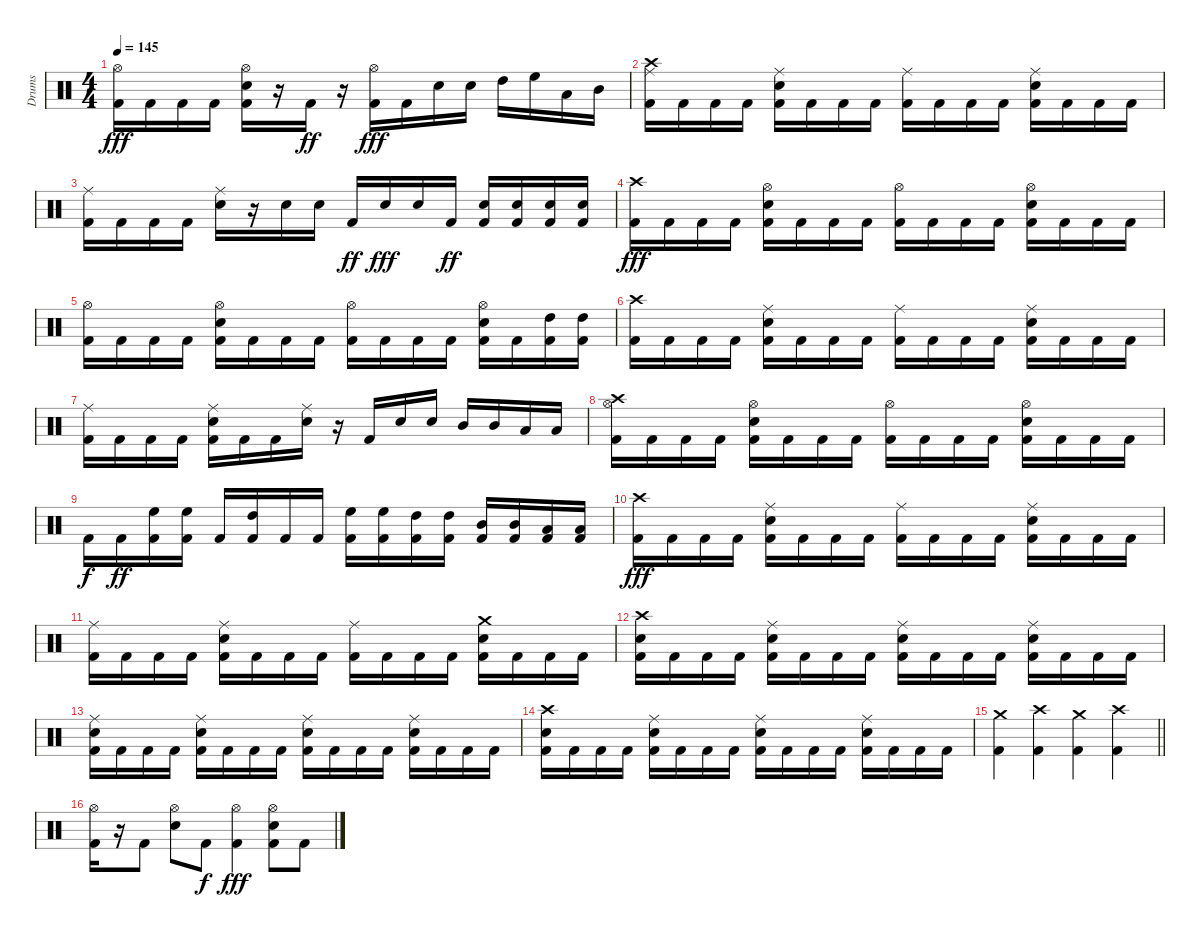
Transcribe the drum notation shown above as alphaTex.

\track ("Drums" "Drums") {instrument percussion}
\staff {score}
\articulation defaults
\ts (4 4)
\tempo 145
\clef neutral
\ks c
("Hi-Hat (open)" "Kick (hit) 2").16{dy fff} "Kick (hit) 2".16 "Kick (hit) 2".16 "Kick (hit) 2".16 ("Hi-Hat (open)" "Snare (hit) 2" "Kick (hit) 2").16 r.16 "Kick (hit) 2".16{dy ff} r.16 ("Hi-Hat (open)" "Kick (hit) 2").16{dy fff} "Kick (hit) 2".16 "Snare (hit) 2".16 "Snare (hit) 2".16 "High Tom (hit)".16 "High Floor Tom (hit)".16 "Low Tom (hit)".16 "Mid Tom (hit)".16 |
("Crash high (hit)" "Ride (middle)" "Kick (hit) 2").16 "Kick (hit) 2".16 "Kick (hit) 2".16 "Kick (hit) 2".16 ("Ride (middle)" "Snare (hit) 2" "Kick (hit) 2").16 "Kick (hit) 2".16 "Kick (hit) 2".16 "Kick (hit) 2".16 ("Ride (middle)" "Kick (hit) 2").16 "Kick (hit) 2".16 "Kick (hit) 2".16 "Kick (hit) 2".16 ("Ride (middle)" "Snare (hit) 2" "Kick (hit) 2").16 "Kick (hit) 2".16 "Kick (hit) 2".16 "Kick (hit) 2".16 |
("Ride (middle)" "Kick (hit) 2").16 "Kick (hit) 2".16 "Kick (hit) 2".16 "Kick (hit) 2".16 ("Ride (middle)" "Snare (hit) 2").16 r.16 "Snare (hit) 2".16 "Snare (hit) 2".16 "Kick (hit) 2".16{dy ff} "Snare (hit) 2".16{dy fff} "Snare (hit) 2".16 "Kick (hit) 2".16{dy ff} ("Snare (hit) 2" "Kick (hit) 2").16 ("Snare (hit) 2" "Kick (hit) 2").16 ("Snare (hit) 2" "Kick (hit) 2").16 ("Snare (hit) 2" "Kick (hit) 2").16 |
("Crash high (hit)" "Kick (hit) 2").16{dy fff} "Kick (hit) 2".16 "Kick (hit) 2".16 "Kick (hit) 2".16 ("Hi-Hat (open)" "Snare (hit) 2" "Kick (hit) 2").16 "Kick (hit) 2".16 "Kick (hit) 2".16 "Kick (hit) 2".16 ("Hi-Hat (open)" "Kick (hit) 2").16 "Kick (hit) 2".16 "Kick (hit) 2".16 "Kick (hit) 2".16 ("Hi-Hat (open)" "Snare (hit) 2" "Kick (hit) 2").16 "Kick (hit) 2".16 "Kick (hit) 2".16 "Kick (hit) 2".16 |
("Hi-Hat (open)" "Kick (hit) 2").16 "Kick (hit) 2".16 "Kick (hit) 2".16 "Kick (hit) 2".16 ("Hi-Hat (open)" "Snare (hit) 2" "Kick (hit) 2").16 "Kick (hit) 2".16 "Kick (hit) 2".16 "Kick (hit) 2".16 ("Hi-Hat (open)" "Kick (hit) 2").16 "Kick (hit) 2".16 "Kick (hit) 2".16 "Kick (hit) 2".16 ("Hi-Hat (open)" "Snare (hit) 2" "Kick (hit) 2").16 "Kick (hit) 2".16 ("High Tom (hit)" "Kick (hit) 2").16 ("High Tom (hit)" "Kick (hit) 2").16 |
("Crash high (hit)" "Kick (hit) 2").16 "Kick (hit) 2".16 "Kick (hit) 2".16 "Kick (hit) 2".16 ("Ride (middle)" "Snare (hit) 2" "Kick (hit) 2").16 "Kick (hit) 2".16 "Kick (hit) 2".16 "Kick (hit) 2".16 ("Ride (middle)" "Kick (hit) 2").16 "Kick (hit) 2".16 "Kick (hit) 2".16 "Kick (hit) 2".16 ("Ride (middle)" "Snare (hit) 2" "Kick (hit) 2").16 "Kick (hit) 2".16 "Kick (hit) 2".16 "Kick (hit) 2".16 |
("Ride (middle)" "Kick (hit) 2").16 "Kick (hit) 2".16 "Kick (hit) 2".16 "Kick (hit) 2".16 ("Ride (middle)" "Snare (hit) 2" "Kick (hit) 2").16 "Kick (hit) 2".16 "Kick (hit) 2".16 ("Ride (middle)" "Snare (hit) 2").16 r.16 "Kick (hit) 2".16 "Snare (hit) 2".16 "Snare (hit) 2".16 "Mid Tom (hit)".16 "Mid Tom (hit)".16 "Low Tom (hit)".16 "Low Tom (hit)".16 |
("Crash high (hit)" "Hi-Hat (open)" "Kick (hit) 2").16 "Kick (hit) 2".16 "Kick (hit) 2".16 "Kick (hit) 2".16 ("Hi-Hat (open)" "Snare (hit) 2" "Kick (hit) 2").16 "Kick (hit) 2".16 "Kick (hit) 2".16 "Kick (hit) 2".16 ("Hi-Hat (open)" "Kick (hit) 2").16 "Kick (hit) 2".16 "Kick (hit) 2".16 "Kick (hit) 2".16 ("Hi-Hat (open)" "Snare (hit) 2" "Kick (hit) 2").16 "Kick (hit) 2".16 "Kick (hit) 2".16 "Kick (hit) 2".16 |
"Kick (hit) 2".16{dy f} "Kick (hit) 2".16{dy ff} ("High Floor Tom (hit)" "Kick (hit) 2").16 ("High Floor Tom (hit)" "Kick (hit) 2").16 "Kick (hit) 2".16 ("High Tom (hit)" "Kick (hit) 2").16 "Kick (hit) 2".16 "Kick (hit) 2".16 ("High Floor Tom (hit)" "Kick (hit) 2").16 ("High Floor Tom (hit)" "Kick (hit) 2").16 ("High Tom (hit)" "Kick (hit) 2").16 ("High Tom (hit)" "Kick (hit) 2").16 ("Mid Tom (hit)" "Kick (hit) 2").16 ("Mid Tom (hit)" "Kick (hit) 2").16 ("Low Tom (hit)" "Kick (hit) 2").16 ("Low Tom (hit)" "Kick (hit) 2").16 |
("Crash high (hit)" "Kick (hit) 2").16{dy fff} "Kick (hit) 2".16 "Kick (hit) 2".16 "Kick (hit) 2".16 ("Ride (middle)" "Snare (hit) 2" "Kick (hit) 2").16 "Kick (hit) 2".16 "Kick (hit) 2".16 "Kick (hit) 2".16 ("Ride (middle)" "Kick (hit) 2").16 "Kick (hit) 2".16 "Kick (hit) 2".16 "Kick (hit) 2".16 ("Ride (middle)" "Snare (hit) 2" "Kick (hit) 2").16 "Kick (hit) 2".16 "Kick (hit) 2".16 "Kick (hit) 2".16 |
("Ride (middle)" "Kick (hit) 2").16 "Kick (hit) 2".16 "Kick (hit) 2".16 "Kick (hit) 2".16 ("Ride (middle)" "Snare (hit) 2" "Kick (hit) 2").16 "Kick (hit) 2".16 "Kick (hit) 2".16 "Kick (hit) 2".16 ("Ride (middle)" "Kick (hit) 2").16 "Kick (hit) 2".16 "Kick (hit) 2".16 "Kick (hit) 2".16 ("Crash medium (hit)" "Snare (hit) 2" "Kick (hit) 2").16 "Kick (hit) 2".16 "Kick (hit) 2".16 "Kick (hit) 2".16 |
("Crash high (hit)" "Snare (hit) 2" "Kick (hit) 2").16 "Kick (hit) 2".16 "Kick (hit) 2".16 "Kick (hit) 2".16 ("Ride (middle)" "Snare (hit) 2" "Kick (hit) 2").16 "Kick (hit) 2".16 "Kick (hit) 2".16 "Kick (hit) 2".16 ("Ride (middle)" "Snare (hit) 2" "Kick (hit) 2").16 "Kick (hit) 2".16 "Kick (hit) 2".16 "Kick (hit) 2".16 ("Ride (middle)" "Snare (hit) 2" "Kick (hit) 2").16 "Kick (hit) 2".16 "Kick (hit) 2".16 "Kick (hit) 2".16 |
("Ride (middle)" "Snare (hit) 2" "Kick (hit) 2").16 "Kick (hit) 2".16 "Kick (hit) 2".16 "Kick (hit) 2".16 ("Ride (middle)" "Snare (hit) 2" "Kick (hit) 2").16 "Kick (hit) 2".16 "Kick (hit) 2".16 "Kick (hit) 2".16 ("Ride (middle)" "Snare (hit) 2" "Kick (hit) 2").16 "Kick (hit) 2".16 "Kick (hit) 2".16 "Kick (hit) 2".16 ("Ride (middle)" "Snare (hit) 2" "Kick (hit) 2").16 "Kick (hit) 2".16 "Kick (hit) 2".16 "Kick (hit) 2".16 |
("Crash high (hit)" "Snare (hit) 2" "Kick (hit) 2").16 "Kick (hit) 2".16 "Kick (hit) 2".16 "Kick (hit) 2".16 ("Ride (middle)" "Snare (hit) 2" "Kick (hit) 2").16 "Kick (hit) 2".16 "Kick (hit) 2".16 "Kick (hit) 2".16 ("Ride (middle)" "Snare (hit) 2" "Kick (hit) 2").16 "Kick (hit) 2".16 "Kick (hit) 2".16 "Kick (hit) 2".16 ("Ride (middle)" "Snare (hit) 2" "Kick (hit) 2").16 "Kick (hit) 2".16 "Kick (hit) 2".16 "Kick (hit) 2".16 |
\barLineRight lightlight
("Crash medium (hit)" "Kick (hit) 2").4 ("Crash high (hit)" "Kick (hit) 2").4 ("Crash medium (hit)" "Kick (hit) 2").4 ("Crash high (hit)" "Kick (hit) 2").4 |
("Hi-Hat (open)" "Kick (hit) 2").16 r.16 "Kick (hit) 2".8 ("Hi-Hat (open)" "Snare (hit) 2").8 "Kick (hit) 2".8{dy f} ("Hi-Hat (open)" "Kick (hit) 2").4{dy fff} ("Hi-Hat (open)" "Snare (hit) 2" "Kick (hit) 2").8 "Kick (hit) 2".8
